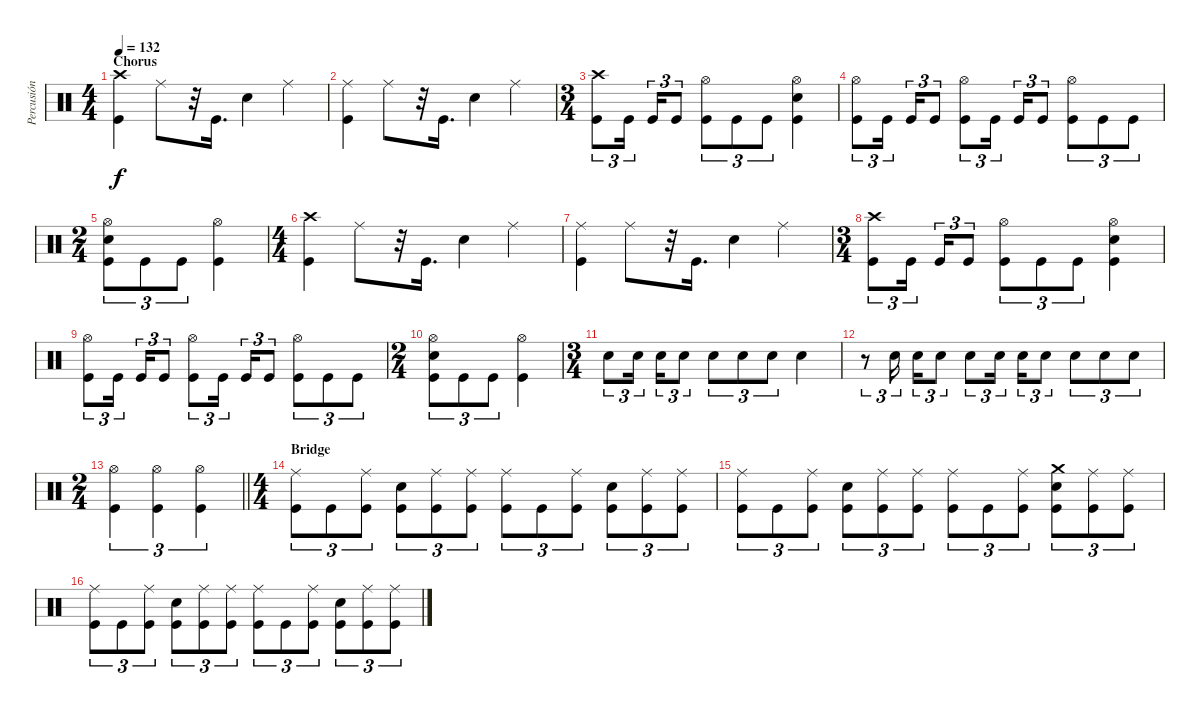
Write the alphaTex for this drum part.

\track ("Percusión" "Percusión") {instrument percussion}
\staff
\articulation defaults
\ts (4 4)
\section ("" "Chorus")
\tempo 132
\clef neutral
\ks c
("Kick (hit)" "Crash high (hit)").4{dy f} "Ride (middle)".8 r.32 "Kick (hit)".16{d} "Electric Snare (hit)".4 "Ride (middle)".4 |
("Kick (hit)" "Ride (middle)").4 "Ride (middle)".8 r.32 "Kick (hit)".16{d} "Electric Snare (hit)".4 "Ride (middle)".4 |
\ts (3 4)
("Kick (hit)" "Crash high (hit)").8{tu (3 2)} "Kick (hit)".16{tu (3 2) beam splitsecondary} "Kick (hit)".16{tu (3 2)} "Kick (hit)".8{tu (3 2)} ("Kick (hit)" "Hi-Hat (open)").8{tu (3 2)} "Kick (hit)".8{tu (3 2)} "Kick (hit)".8{tu (3 2)} ("Kick (hit)" "Electric Snare (hit)" "Hi-Hat (open)").4 |
("Kick (hit)" "Hi-Hat (open)").8{tu (3 2)} "Kick (hit)".16{tu (3 2) beam splitsecondary} "Kick (hit)".16{tu (3 2)} "Kick (hit)".8{tu (3 2)} ("Kick (hit)" "Hi-Hat (open)").8{tu (3 2)} "Kick (hit)".16{tu (3 2) beam splitsecondary} "Kick (hit)".16{tu (3 2)} "Kick (hit)".8{tu (3 2)} ("Kick (hit)" "Hi-Hat (open)").8{tu (3 2)} "Kick (hit)".8{tu (3 2)} "Kick (hit)".8{tu (3 2)} |
\ts (2 4)
("Kick (hit)" "Hi-Hat (open)" "Electric Snare (hit)").8{tu (3 2)} "Kick (hit)".8{tu (3 2)} "Kick (hit)".8{tu (3 2)} ("Kick (hit)" "Hi-Hat (open)").4 |
\ts (4 4)
("Kick (hit)" "Crash high (hit)").4 "Ride (middle)".8 r.32 "Kick (hit)".16{d} "Electric Snare (hit)".4 "Ride (middle)".4 |
("Kick (hit)" "Ride (middle)").4 "Ride (middle)".8 r.32 "Kick (hit)".16{d} "Electric Snare (hit)".4 "Ride (middle)".4 |
\ts (3 4)
("Kick (hit)" "Crash high (hit)").8{tu (3 2)} "Kick (hit)".16{tu (3 2) beam splitsecondary} "Kick (hit)".16{tu (3 2)} "Kick (hit)".8{tu (3 2)} ("Kick (hit)" "Hi-Hat (open)").8{tu (3 2)} "Kick (hit)".8{tu (3 2)} "Kick (hit)".8{tu (3 2)} ("Kick (hit)" "Electric Snare (hit)" "Hi-Hat (open)").4 |
("Kick (hit)" "Hi-Hat (open)").8{tu (3 2)} "Kick (hit)".16{tu (3 2) beam splitsecondary} "Kick (hit)".16{tu (3 2)} "Kick (hit)".8{tu (3 2)} ("Kick (hit)" "Hi-Hat (open)").8{tu (3 2)} "Kick (hit)".16{tu (3 2) beam splitsecondary} "Kick (hit)".16{tu (3 2)} "Kick (hit)".8{tu (3 2)} ("Kick (hit)" "Hi-Hat (open)").8{tu (3 2)} "Kick (hit)".8{tu (3 2)} "Kick (hit)".8{tu (3 2)} |
\ts (2 4)
("Kick (hit)" "Hi-Hat (open)" "Electric Snare (hit)").8{tu (3 2)} "Kick (hit)".8{tu (3 2)} "Kick (hit)".8{tu (3 2)} ("Kick (hit)" "Hi-Hat (open)").4 |
\ts (3 4)
"Electric Snare (hit)".8{tu (3 2)} "Electric Snare (hit)".16{tu (3 2) beam splitsecondary} "Electric Snare (hit)".16{tu (3 2)} "Electric Snare (hit)".8{tu (3 2)} "Electric Snare (hit)".8{tu (3 2)} "Electric Snare (hit)".8{tu (3 2)} "Electric Snare (hit)".8{tu (3 2)} "Electric Snare (hit)".4 |
r.8{tu (3 2)} "Electric Snare (hit)".16{tu (3 2) beam splitsecondary} "Electric Snare (hit)".16{tu (3 2)} "Electric Snare (hit)".8{tu (3 2)} "Electric Snare (hit)".8{tu (3 2)} "Electric Snare (hit)".16{tu (3 2) beam splitsecondary} "Electric Snare (hit)".16{tu (3 2)} "Electric Snare (hit)".8{tu (3 2)} "Electric Snare (hit)".8{tu (3 2)} "Electric Snare (hit)".8{tu (3 2)} "Electric Snare (hit)".8{tu (3 2)} |
\ts (2 4)
\barLineRight lightlight
("Kick (hit)" "Hi-Hat (open)").4{tu (3 2)} ("Kick (hit)" "Hi-Hat (open)").4{tu (3 2)} ("Kick (hit)" "Hi-Hat (open)").4{tu (3 2)} |
\ts (4 4)
\section ("" "Bridge")
("Kick (hit)" "Ride (middle)").8{tu (3 2)} "Kick (hit)".8{tu (3 2)} ("Kick (hit)" "Ride (middle)").8{tu (3 2)} ("Kick (hit)" "Electric Snare (hit)").8{tu (3 2)} ("Kick (hit)" "Ride (middle)").8{tu (3 2)} ("Kick (hit)" "Ride (middle)").8{tu (3 2)} ("Kick (hit)" "Ride (middle)").8{tu (3 2)} "Kick (hit)".8{tu (3 2)} ("Kick (hit)" "Ride (middle)").8{tu (3 2)} ("Kick (hit)" "Electric Snare (hit)").8{tu (3 2)} ("Kick (hit)" "Ride (middle)").8{tu (3 2)} ("Kick (hit)" "Ride (middle)").8{tu (3 2)} |
("Kick (hit)" "Ride (middle)").8{tu (3 2)} "Kick (hit)".8{tu (3 2)} ("Kick (hit)" "Ride (middle)").8{tu (3 2)} ("Kick (hit)" "Electric Snare (hit)").8{tu (3 2)} ("Kick (hit)" "Ride (middle)").8{tu (3 2)} ("Kick (hit)" "Ride (middle)").8{tu (3 2)} ("Kick (hit)" "Ride (middle)").8{tu (3 2)} "Kick (hit)".8{tu (3 2)} ("Kick (hit)" "Ride (middle)").8{tu (3 2)} ("Kick (hit)" "Electric Snare (hit)" "Crash medium (hit)").8{tu (3 2)} ("Kick (hit)" "Ride (middle)").8{tu (3 2)} ("Kick (hit)" "Ride (middle)").8{tu (3 2)} |
("Kick (hit)" "Ride (middle)").8{tu (3 2)} "Kick (hit)".8{tu (3 2)} ("Kick (hit)" "Ride (middle)").8{tu (3 2)} ("Kick (hit)" "Electric Snare (hit)").8{tu (3 2)} ("Kick (hit)" "Ride (middle)").8{tu (3 2)} ("Kick (hit)" "Ride (middle)").8{tu (3 2)} ("Kick (hit)" "Ride (middle)").8{tu (3 2)} "Kick (hit)".8{tu (3 2)} ("Kick (hit)" "Ride (middle)").8{tu (3 2)} ("Kick (hit)" "Electric Snare (hit)").8{tu (3 2)} ("Kick (hit)" "Ride (middle)").8{tu (3 2)} ("Kick (hit)" "Ride (middle)").8{tu (3 2)}
